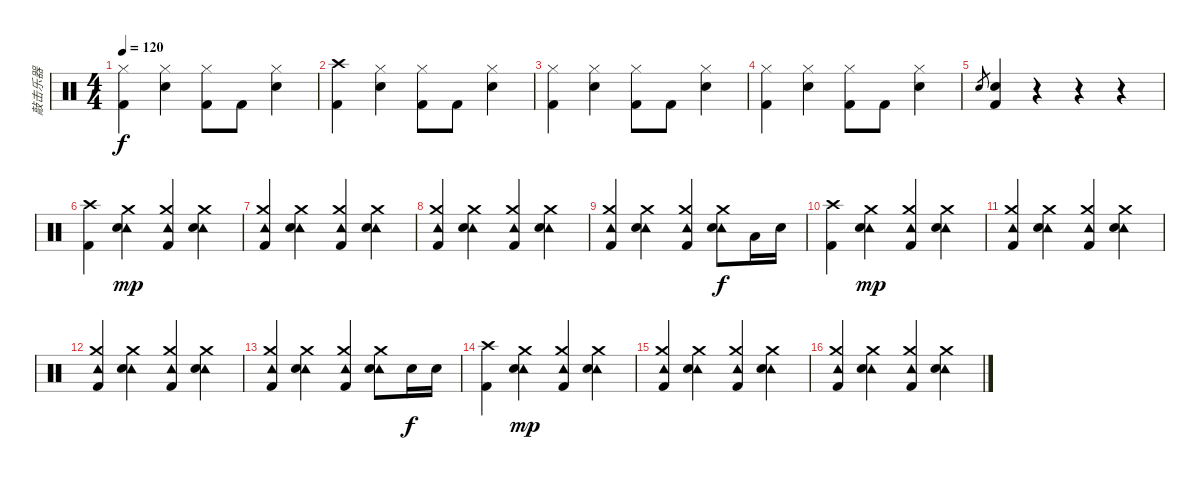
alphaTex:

\track ("敲击乐器" "敲击乐器") {instrument percussion}
\staff {score}
\articulation defaults
\ts (4 4)
\tempo 120
\clef neutral
\ks c
("Hi-Hat (closed)" "Kick (hit) 2").4{dy f} ("Hi-Hat (closed)" "Electric Snare (hit)").4 ("Hi-Hat (closed)" "Kick (hit) 2").8 "Kick (hit) 2".8 ("Hi-Hat (closed)" "Electric Snare (hit)").4 |
("Crash high (hit)" "Kick (hit) 2").4 ("Hi-Hat (closed)" "Electric Snare (hit)").4 ("Hi-Hat (closed)" "Kick (hit) 2").8 "Kick (hit) 2".8 ("Hi-Hat (closed)" "Electric Snare (hit)").4 |
("Hi-Hat (closed)" "Kick (hit) 2").4 ("Hi-Hat (closed)" "Electric Snare (hit)").4 ("Hi-Hat (closed)" "Kick (hit) 2").8 "Kick (hit) 2".8 ("Hi-Hat (closed)" "Electric Snare (hit)").4 |
("Hi-Hat (closed)" "Kick (hit) 2").4 ("Hi-Hat (closed)" "Electric Snare (hit)").4 ("Hi-Hat (closed)" "Kick (hit) 2").8 "Kick (hit) 2".8 ("Hi-Hat (closed)" "Electric Snare (hit)").4 |
"Electric Snare (hit)".8{gr} ("Electric Snare (hit)" "Kick (hit) 2").4 r.4 r.4 r.4 |
("Crash high (hit)" "Kick (hit) 2").4 ("Crash medium (hit)" "Tambourine (hit)" "Electric Snare (hit)").4{dy mp} ("Crash medium (hit)" "Tambourine (hit)" "Kick (hit) 2").4 ("Crash medium (hit)" "Tambourine (hit)" "Electric Snare (hit)").4 |
("Crash medium (hit)" "Tambourine (hit)" "Kick (hit) 2").4 ("Crash medium (hit)" "Tambourine (hit)" "Electric Snare (hit)").4 ("Crash medium (hit)" "Tambourine (hit)" "Kick (hit) 2").4 ("Crash medium (hit)" "Tambourine (hit)" "Electric Snare (hit)").4 |
("Crash medium (hit)" "Tambourine (hit)" "Kick (hit) 2").4 ("Crash medium (hit)" "Tambourine (hit)" "Electric Snare (hit)").4 ("Crash medium (hit)" "Tambourine (hit)" "Kick (hit) 2").4 ("Crash medium (hit)" "Tambourine (hit)" "Electric Snare (hit)").4 |
("Crash medium (hit)" "Tambourine (hit)" "Kick (hit) 2").4 ("Crash medium (hit)" "Tambourine (hit)" "Electric Snare (hit)").4 ("Crash medium (hit)" "Tambourine (hit)" "Kick (hit) 2").4 ("Crash medium (hit)" "Tambourine (hit)" "Electric Snare (hit)").8{dy f} "Low Tom (hit)".16 "Electric Snare (hit)".16 |
("Crash high (hit)" "Kick (hit) 2").4 ("Crash medium (hit)" "Tambourine (hit)" "Electric Snare (hit)").4{dy mp} ("Crash medium (hit)" "Tambourine (hit)" "Kick (hit) 2").4 ("Crash medium (hit)" "Tambourine (hit)" "Electric Snare (hit)").4 |
("Crash medium (hit)" "Tambourine (hit)" "Kick (hit) 2").4 ("Crash medium (hit)" "Tambourine (hit)" "Electric Snare (hit)").4 ("Crash medium (hit)" "Tambourine (hit)" "Kick (hit) 2").4 ("Crash medium (hit)" "Tambourine (hit)" "Electric Snare (hit)").4 |
("Crash medium (hit)" "Tambourine (hit)" "Kick (hit) 2").4 ("Crash medium (hit)" "Tambourine (hit)" "Electric Snare (hit)").4 ("Crash medium (hit)" "Tambourine (hit)" "Kick (hit) 2").4 ("Crash medium (hit)" "Tambourine (hit)" "Electric Snare (hit)").4 |
("Crash medium (hit)" "Tambourine (hit)" "Kick (hit) 2").4 ("Crash medium (hit)" "Tambourine (hit)" "Electric Snare (hit)").4 ("Crash medium (hit)" "Tambourine (hit)" "Kick (hit) 2").4 ("Crash medium (hit)" "Tambourine (hit)" "Electric Snare (hit)").8 "Electric Snare (hit)".16{dy f} "Electric Snare (hit)".16 |
("Crash high (hit)" "Kick (hit) 2").4 ("Crash medium (hit)" "Tambourine (hit)" "Electric Snare (hit)").4{dy mp} ("Crash medium (hit)" "Tambourine (hit)" "Kick (hit) 2").4 ("Crash medium (hit)" "Tambourine (hit)" "Electric Snare (hit)").4 |
("Crash medium (hit)" "Tambourine (hit)" "Kick (hit) 2").4 ("Crash medium (hit)" "Tambourine (hit)" "Electric Snare (hit)").4 ("Crash medium (hit)" "Tambourine (hit)" "Kick (hit) 2").4 ("Crash medium (hit)" "Tambourine (hit)" "Electric Snare (hit)").4 |
("Crash medium (hit)" "Tambourine (hit)" "Kick (hit) 2").4 ("Crash medium (hit)" "Tambourine (hit)" "Electric Snare (hit)").4 ("Crash medium (hit)" "Tambourine (hit)" "Kick (hit) 2").4 ("Crash medium (hit)" "Tambourine (hit)" "Electric Snare (hit)").4
